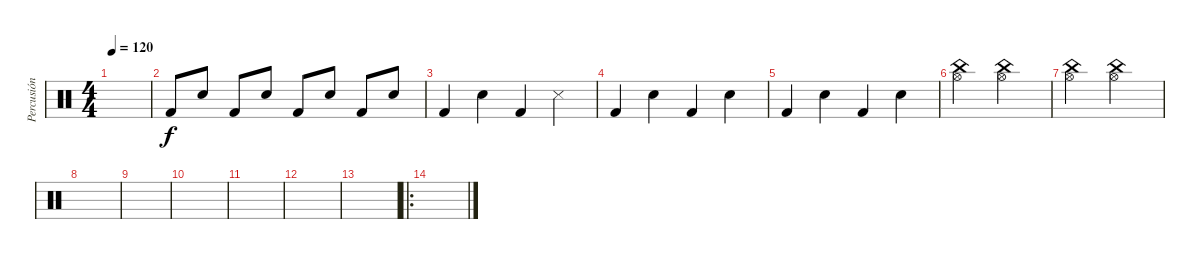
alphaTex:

\track ("Percusión" "Percusión") {instrument percussion}
\staff {score}
\articulation defaults
\ts (4 4)
\tempo 120
\clef neutral
\ks c
|
"Kick (hit) 2".8 "Snare (hit) 2".8 "Kick (hit) 2".8 "Snare (hit) 2".8 "Kick (hit) 2".8 "Snare (hit) 2".8 "Kick (hit) 2".8 "Snare (hit) 2".8 |
"Kick (hit) 2".4 "Snare (hit) 2".4 "Kick (hit) 2".4 "Snare (side stick) 3".4 |
"Kick (hit) 2".4 "Snare (hit) 2".4 "Kick (hit) 2".4 "Snare (hit) 2".4 |
"Kick (hit) 2".4 "Snare (hit) 2".4 "Kick (hit) 2".4 "Snare (hit) 2".4 |
("China (hit)" "Hi-Hat (open)").2 ("China (hit)" "Hi-Hat (open)").2 |
("China (hit)" "Hi-Hat (open)").2 ("China (hit)" "Hi-Hat (open)").2 |
|
|
|
|
|
|
\ro
